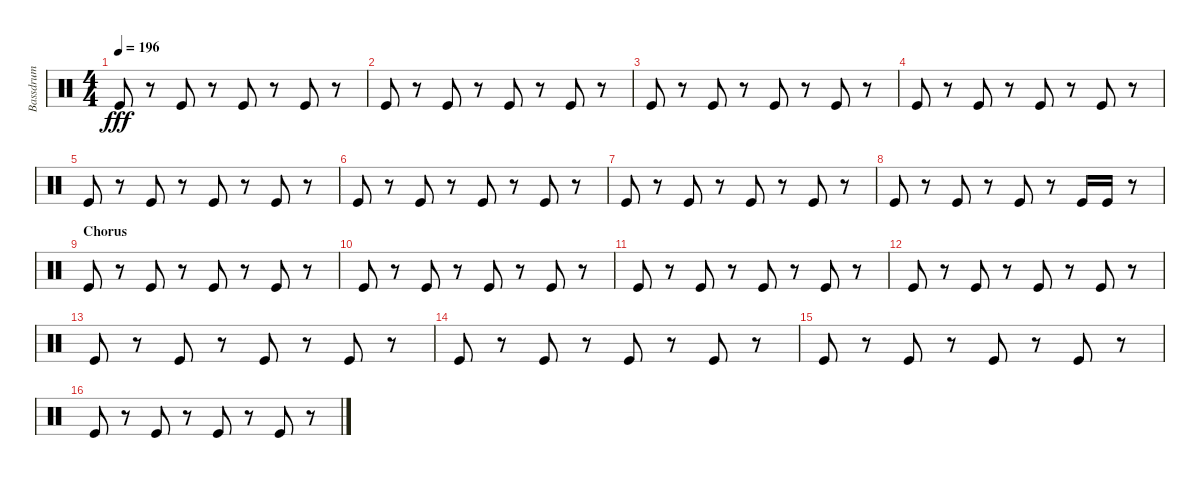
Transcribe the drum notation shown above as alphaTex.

\track ("Bassdrum" "Bassdrum") {instrument percussion}
\staff {score}
\articulation defaults
\ts (4 4)
\tempo 196
\clef neutral
\ks c "Kick (hit)".8{dy fff}
r.8 "Kick (hit)".8 r.8 "Kick (hit)".8 r.8 "Kick (hit)".8 r.8 |
"Kick (hit)".8 r.8 "Kick (hit)".8 r.8 "Kick (hit)".8 r.8 "Kick (hit)".8 r.8 |
"Kick (hit)".8 r.8 "Kick (hit)".8 r.8 "Kick (hit)".8 r.8 "Kick (hit)".8 r.8 |
"Kick (hit)".8 r.8 "Kick (hit)".8 r.8 "Kick (hit)".8 r.8 "Kick (hit)".8 r.8 |
"Kick (hit)".8 r.8 "Kick (hit)".8 r.8 "Kick (hit)".8 r.8 "Kick (hit)".8 r.8 |
"Kick (hit)".8 r.8 "Kick (hit)".8 r.8 "Kick (hit)".8 r.8 "Kick (hit)".8 r.8 |
"Kick (hit)".8 r.8 "Kick (hit)".8 r.8 "Kick (hit)".8 r.8 "Kick (hit)".8 r.8 |
"Kick (hit)".8 r.8 "Kick (hit)".8 r.8 "Kick (hit)".8 r.8 "Kick (hit)".16 "Kick (hit)".16 r.8 |
\section ("" "Chorus")
"Kick (hit)".8 r.8 "Kick (hit)".8 r.8 "Kick (hit)".8 r.8 "Kick (hit)".8 r.8 |
"Kick (hit)".8 r.8 "Kick (hit)".8 r.8 "Kick (hit)".8 r.8 "Kick (hit)".8 r.8 |
"Kick (hit)".8 r.8 "Kick (hit)".8 r.8 "Kick (hit)".8 r.8 "Kick (hit)".8 r.8 |
"Kick (hit)".8 r.8 "Kick (hit)".8 r.8 "Kick (hit)".8 r.8 "Kick (hit)".8 r.8 |
"Kick (hit)".8 r.8 "Kick (hit)".8 r.8 "Kick (hit)".8 r.8 "Kick (hit)".8 r.8 |
"Kick (hit)".8 r.8 "Kick (hit)".8 r.8 "Kick (hit)".8 r.8 "Kick (hit)".8 r.8 |
"Kick (hit)".8 r.8 "Kick (hit)".8 r.8 "Kick (hit)".8 r.8 "Kick (hit)".8 r.8 |
"Kick (hit)".8 r.8 "Kick (hit)".8 r.8 "Kick (hit)".8 r.8 "Kick (hit)".8 r.8
